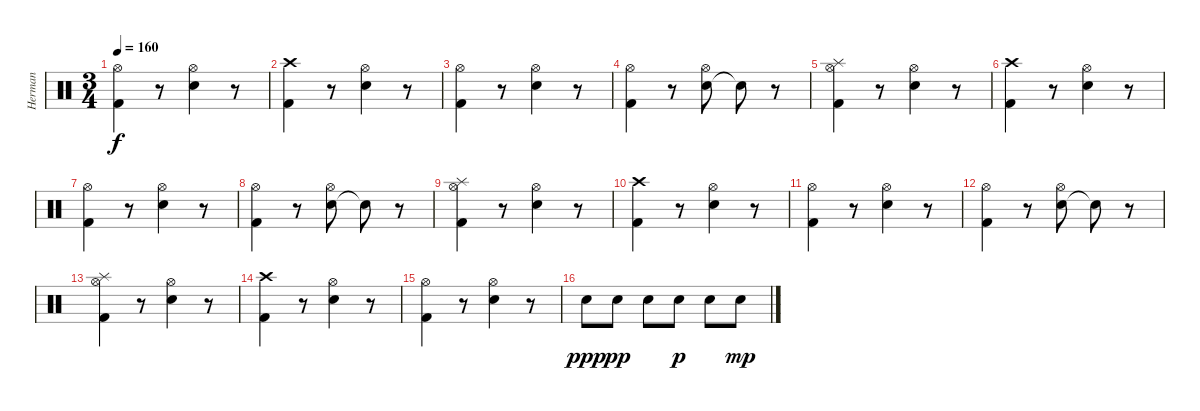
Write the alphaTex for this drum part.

\track ("Herman" "Herman") {instrument percussion}
\staff {score}
\articulation defaults
\ts (3 4)
\tempo 160
\clef neutral
\ks c
("Kick (hit) 2" "Hi-Hat (open)").4{dy f} r.8 ("Electric Snare (hit)" "Hi-Hat (open)").4 r.8 |
("Kick (hit) 2" "Crash high (hit)").4 r.8 ("Electric Snare (hit)" "Hi-Hat (open)").4 r.8 |
("Kick (hit) 2" "Hi-Hat (open)").4 r.8 ("Electric Snare (hit)" "Hi-Hat (open)").4 r.8 |
("Kick (hit) 2" "Hi-Hat (open)").4 r.8 ("Electric Snare (hit)" "Hi-Hat (open)").8 "Snare (hit)"{t}.8 r.8 |
("Kick (hit) 2" "Hi-Hat (open)" "Splash (hit)").4 r.8 ("Electric Snare (hit)" "Hi-Hat (open)").4 r.8 |
("Kick (hit) 2" "Crash high (hit)").4 r.8 ("Electric Snare (hit)" "Hi-Hat (open)").4 r.8 |
("Kick (hit) 2" "Hi-Hat (open)").4 r.8 ("Electric Snare (hit)" "Hi-Hat (open)").4 r.8 |
("Kick (hit) 2" "Hi-Hat (open)").4 r.8 ("Electric Snare (hit)" "Hi-Hat (open)").8 "Snare (hit)"{t}.8 r.8 |
("Kick (hit) 2" "Hi-Hat (open)" "Splash (hit)").4 r.8 ("Electric Snare (hit)" "Hi-Hat (open)").4 r.8 |
("Kick (hit) 2" "Crash high (hit)").4 r.8 ("Electric Snare (hit)" "Hi-Hat (open)").4 r.8 |
("Kick (hit) 2" "Hi-Hat (open)").4 r.8 ("Electric Snare (hit)" "Hi-Hat (open)").4 r.8 |
("Kick (hit) 2" "Hi-Hat (open)").4 r.8 ("Electric Snare (hit)" "Hi-Hat (open)").8 "Snare (hit)"{t}.8 r.8 |
("Kick (hit) 2" "Hi-Hat (open)" "Splash (hit)").4 r.8 ("Electric Snare (hit)" "Hi-Hat (open)").4 r.8 |
("Kick (hit) 2" "Crash high (hit)").4 r.8 ("Electric Snare (hit)" "Hi-Hat (open)").4 r.8 |
("Kick (hit) 2" "Hi-Hat (open)").4 r.8 ("Electric Snare (hit)" "Hi-Hat (open)").4 r.8 |
"Electric Snare (hit)".8{dy ppp} "Electric Snare (hit)".8{dy pp} "Electric Snare (hit)".8 "Electric Snare (hit)".8{dy p} "Electric Snare (hit)".8 "Electric Snare (hit)".8{dy mp}
